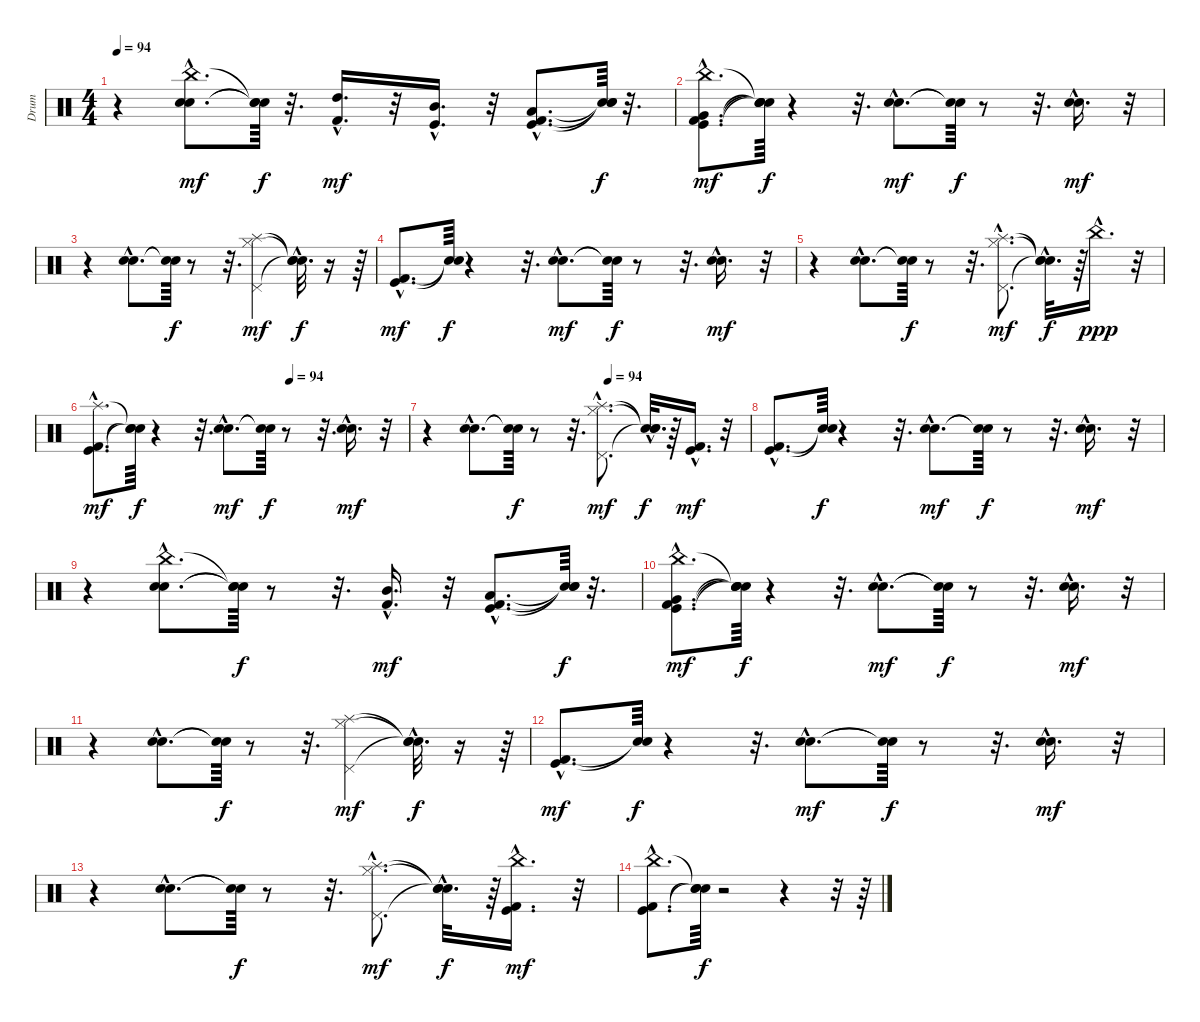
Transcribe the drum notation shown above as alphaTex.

\track ("Drum" "Drum") {instrument percussion}
\staff {score}
\articulation defaults
\ts (4 4)
\tempo 94
\clef neutral
\ks c
r.4{dy mf} ("China (hit)"{hac} "Electric Snare (hit)"{hac} "Snare (hit) 2"{hac}).8{d} ("Snare (hit)"{t} "Snare (hit)"{t} "Snare (hit)"{t}).64{dy f} r.32{d} ("High Tom (hit)"{hac} "Kick (hit) 2"{hac}).16{d dy mf} r.32 ("Mid Tom (hit)"{hac} "Kick (hit)"{hac}).16{d} r.32 ("Low Tom (hit)"{hac} "Kick (hit)"{hac} "Kick (hit) 2"{hac}).8{d} ("Snare (hit)"{t} "Snare (hit)"{t} "Snare (hit)"{t}).64{dy f} r.32{d} |
("China (hit)"{hac} "Kick (hit) 2"{hac} "Very Low Tom (hit)"{hac} "Kick (hit)"{hac}).8{d dy mf} ("Snare (hit)"{t} "Snare (hit)"{t} "Snare (hit)"{t} "Snare (hit)"{t}).64{dy f} r.4 r.32{d} ("Electric Snare (hit)"{hac} "Snare (hit) 2"{hac}).8{d dy mf} ("Snare (hit)"{t} "Snare (hit)"{t}).64{dy f} r.8 r.32{d} ("Electric Snare (hit)"{hac} "Snare (hit) 2"{hac}).16{d dy mf} r.32 |
r.4 ("Electric Snare (hit)"{hac} "Snare (hit) 2"{hac}).8{d} ("Snare (hit)"{t} "Snare (hit)"{t}).64{dy f} r.8 r.32{d} ("Pedal Hi-Hat (hit)" "Splash (hit)" "Hi-Hat (closed)").4{dy mf} ("Snare (hit)"{hac t} "Snare (hit)"{hac t} "Snare (hit)"{hac t}).32{d dy f} r.16 r.64 |
("Kick (hit)"{hac} "Kick (hit) 2"{hac}).8{d dy mf} ("Snare (hit)"{t} "Snare (hit)"{t}).64{dy f} r.4 r.32{d} ("Electric Snare (hit)"{hac} "Snare (hit) 2"{hac}).8{d dy mf} ("Snare (hit)"{t} "Snare (hit)"{t}).64{dy f} r.8 r.32{d} ("Electric Snare (hit)"{hac} "Snare (hit) 2"{hac}).16{d dy mf} r.32 |
r.4 ("Electric Snare (hit)"{hac} "Snare (hit) 2"{hac}).8{d} ("Snare (hit)"{t} "Snare (hit)"{t}).64{dy f} r.8 r.32{d} ("Pedal Hi-Hat (hit)"{hac} "Hi-Hat (closed)"{hac} "Splash (hit)"{hac}).8{d dy mf} ("Snare (hit)"{hac t} "Snare (hit)"{hac t} "Snare (hit)"{hac t}).32{d dy f} r.64 "China (hit)"{hac}.16{d dy ppp} r.32 |
\tempo (94 0.625)
("Kick (hit) 2"{hac} "Splash (hit)"{hac} "Kick (hit)"{hac}).8{d dy mf} ("Snare (hit)"{t} "Snare (hit)"{t} "Snare (hit)"{t}).64{dy f} r.4 r.32{d} ("Electric Snare (hit)"{hac} "Snare (hit) 2"{hac}).8{d dy mf} ("Snare (hit)"{t} "Snare (hit)"{t}).64{dy f} r.8 r.32{d} ("Electric Snare (hit)"{hac} "Snare (hit) 2"{hac}).16{d dy mf} r.32 |
\tempo (94 0.5625)
r.4 ("Electric Snare (hit)"{hac} "Snare (hit) 2"{hac}).8{d} ("Snare (hit)"{t} "Snare (hit)"{t}).64{dy f} r.8 r.32{d} ("Pedal Hi-Hat (hit)"{hac} "Hi-Hat (closed)"{hac} "Splash (hit)"{hac}).8{d dy mf} ("Snare (hit)"{hac t} "Snare (hit)"{hac t} "Snare (hit)"{hac t}).32{d dy f} r.64 ("Kick (hit) 2"{hac} "Kick (hit)"{hac}).16{d dy mf} r.32 |
("Kick (hit) 2"{hac} "Kick (hit)"{hac}).8{d} ("Snare (hit)"{t} "Snare (hit)"{t}).64{dy f} r.4 r.32{d} ("Electric Snare (hit)"{hac} "Snare (hit) 2"{hac}).8{d dy mf} ("Snare (hit)"{t} "Snare (hit)"{t}).64{dy f} r.8 r.32{d} ("Electric Snare (hit)"{hac} "Snare (hit) 2"{hac}).16{d dy mf} r.32 |
r.4 ("Electric Snare (hit)"{hac} "China (hit)"{hac} "Snare (hit) 2"{hac}).8{d} ("Snare (hit)"{t} "Snare (hit)"{t} "Snare (hit)"{t}).64{dy f} r.8 r.32{d} ("Kick (hit) 2"{hac} "Mid Tom (hit)"{hac}).16{d dy mf} r.32 ("Kick (hit) 2"{hac} "Low Tom (hit)"{hac} "Kick (hit)"{hac}).8{d} ("Snare (hit)"{t} "Snare (hit)"{t} "Snare (hit)"{t}).64{dy f} r.32{d} |
("Kick (hit) 2"{hac} "China (hit)"{hac} "Very Low Tom (hit)"{hac} "Kick (hit)"{hac}).8{d dy mf} ("Snare (hit)"{t} "Snare (hit)"{t} "Snare (hit)"{t} "Snare (hit)"{t}).64{dy f} r.4 r.32{d} ("Electric Snare (hit)"{hac} "Snare (hit) 2"{hac}).8{d dy mf} ("Snare (hit)"{t} "Snare (hit)"{t}).64{dy f} r.8 r.32{d} ("Electric Snare (hit)"{hac} "Snare (hit) 2"{hac}).16{d dy mf} r.32 |
r.4 ("Electric Snare (hit)"{hac} "Snare (hit) 2"{hac}).8{d} ("Snare (hit)"{t} "Snare (hit)"{t}).64{dy f} r.8 r.32{d} ("Pedal Hi-Hat (hit)" "Splash (hit)" "Hi-Hat (closed)").4{dy mf} ("Snare (hit)"{hac t} "Snare (hit)"{hac t} "Snare (hit)"{hac t}).32{d dy f} r.16 r.64 |
("Kick (hit) 2"{hac} "Kick (hit)"{hac}).8{d dy mf} ("Snare (hit)"{t} "Snare (hit)"{t}).64{dy f} r.4 r.32{d} ("Electric Snare (hit)"{hac} "Snare (hit) 2"{hac}).8{d dy mf} ("Snare (hit)"{t} "Snare (hit)"{t}).64{dy f} r.8 r.32{d} ("Electric Snare (hit)"{hac} "Snare (hit) 2"{hac}).16{d dy mf} r.32 |
r.4 ("Electric Snare (hit)"{hac} "Snare (hit) 2"{hac}).8{d} ("Snare (hit)"{t} "Snare (hit)"{t}).64{dy f} r.8 r.32{d} ("Pedal Hi-Hat (hit)"{hac} "Splash (hit)"{hac} "Hi-Hat (closed)"{hac}).8{d dy mf} ("Snare (hit)"{hac t} "Snare (hit)"{hac t} "Snare (hit)"{hac t}).32{d dy f} r.64 ("Kick (hit) 2"{hac} "China (hit)"{hac} "Kick (hit)"{hac}).16{d dy mf} r.32 |
("Kick (hit) 2"{hac} "China (hit)"{hac} "Kick (hit)"{hac}).8{d} ("Snare (hit)"{t} "Snare (hit)"{t} "Snare (hit)"{t}).64{dy f} r.2 r.4 r.32 r.64
